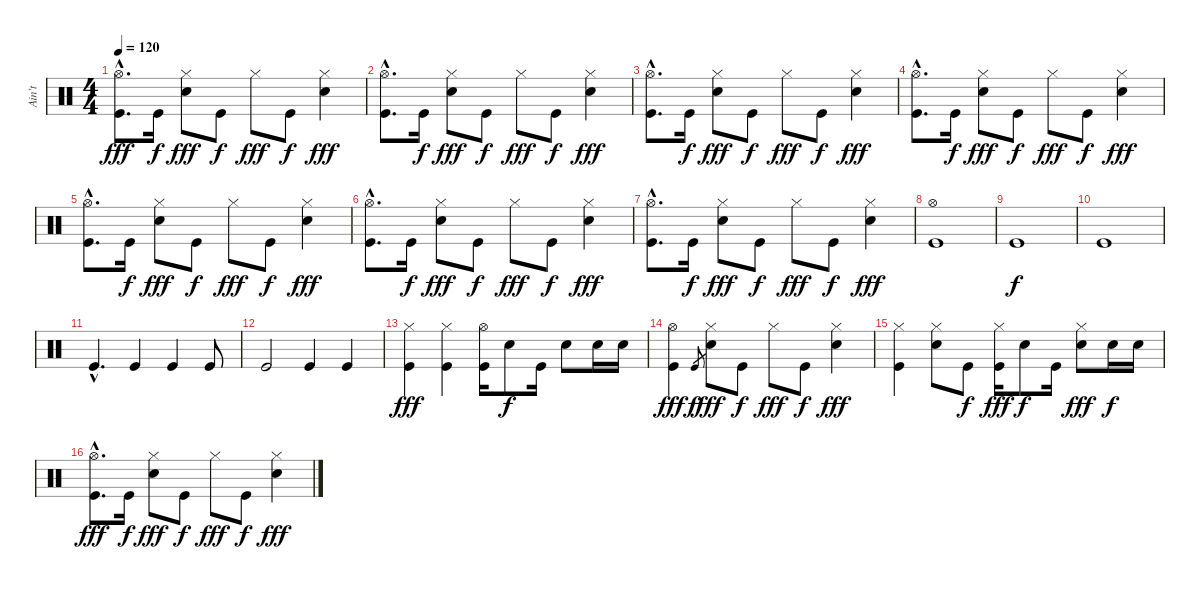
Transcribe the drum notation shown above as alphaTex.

\track ("Ain't" "Ain't") {instrument percussion}
\staff {score}
\articulation defaults
\ts (4 4)
\tempo 120
\clef neutral
\ks c
("Hi-Hat (open)"{hac} "Kick (hit)"{hac}).8{d dy fff} "Kick (hit)".16{dy f} ("Hi-Hat (closed)" "Electric Snare (hit)").8{dy fff} "Kick (hit)".8{dy f} "Hi-Hat (closed)".8{dy fff} "Kick (hit)".8{dy f} ("Hi-Hat (closed)" "Electric Snare (hit)").4{dy fff} |
("Hi-Hat (open)"{hac} "Kick (hit)"{hac}).8{d} "Kick (hit)".16{dy f} ("Hi-Hat (closed)" "Electric Snare (hit)").8{dy fff} "Kick (hit)".8{dy f} "Hi-Hat (closed)".8{dy fff} "Kick (hit)".8{dy f} ("Hi-Hat (closed)" "Electric Snare (hit)").4{dy fff} |
("Hi-Hat (open)"{hac} "Kick (hit)"{hac}).8{d} "Kick (hit)".16{dy f} ("Hi-Hat (closed)" "Electric Snare (hit)").8{dy fff} "Kick (hit)".8{dy f} "Hi-Hat (closed)".8{dy fff} "Kick (hit)".8{dy f} ("Hi-Hat (closed)" "Electric Snare (hit)").4{dy fff} |
("Hi-Hat (open)"{hac} "Kick (hit)"{hac}).8{d} "Kick (hit)".16{dy f} ("Hi-Hat (closed)" "Electric Snare (hit)").8{dy fff} "Kick (hit)".8{dy f} "Hi-Hat (closed)".8{dy fff} "Kick (hit)".8{dy f} ("Hi-Hat (closed)" "Electric Snare (hit)").4{dy fff} |
("Hi-Hat (open)"{hac} "Kick (hit)"{hac}).8{d} "Kick (hit)".16{dy f} ("Hi-Hat (closed)" "Electric Snare (hit)").8{dy fff} "Kick (hit)".8{dy f} "Hi-Hat (closed)".8{dy fff} "Kick (hit)".8{dy f} ("Hi-Hat (closed)" "Electric Snare (hit)").4{dy fff} |
("Hi-Hat (open)"{hac} "Kick (hit)"{hac}).8{d} "Kick (hit)".16{dy f} ("Hi-Hat (closed)" "Electric Snare (hit)").8{dy fff} "Kick (hit)".8{dy f} "Hi-Hat (closed)".8{dy fff} "Kick (hit)".8{dy f} ("Hi-Hat (closed)" "Electric Snare (hit)").4{dy fff} |
("Hi-Hat (open)"{hac} "Kick (hit)"{hac}).8{d} "Kick (hit)".16{dy f} ("Hi-Hat (closed)" "Electric Snare (hit)").8{dy fff} "Kick (hit)".8{dy f} "Hi-Hat (closed)".8{dy fff} "Kick (hit)".8{dy f} ("Hi-Hat (closed)" "Electric Snare (hit)").4{dy fff} |
("Hi-Hat (open)" "Kick (hit)").1 |
"Kick (hit)".1{dy f} |
"Kick (hit)".1 |
"Kick (hit)"{hac}.4{d} "Kick (hit)".4 "Kick (hit)".4 "Kick (hit)".8 |
"Kick (hit)".2 "Kick (hit)".4 "Kick (hit)".4 |
("Hi-Hat (closed)" "Kick (hit)").4{dy fff} ("Hi-Hat (closed)" "Kick (hit)").4 ("Hi-Hat (open)" "Kick (hit)").16 "Electric Snare (hit)".8{dy f} "Kick (hit)".16 "Electric Snare (hit)".8 "Electric Snare (hit)".16 "Electric Snare (hit)".16 |
("Hi-Hat (open)" "Kick (hit)").4{dy fff} "Kick (hit)".8{gr dy f} ("Hi-Hat (closed)" "Electric Snare (hit)").8{dy fff} "Kick (hit)".8{dy f} "Hi-Hat (closed)".8{dy fff} "Kick (hit)".8{dy f} ("Hi-Hat (closed)" "Electric Snare (hit)").4{dy fff} |
("Hi-Hat (closed)" "Kick (hit)").4 ("Hi-Hat (closed)" "Electric Snare (hit)").8 "Kick (hit)".8{dy f} ("Hi-Hat (closed)" "Kick (hit)").16{dy fff} "Electric Snare (hit)".8{dy f} "Kick (hit)".16 ("Hi-Hat (closed)" "Electric Snare (hit)").8{dy fff} "Electric Snare (hit)".16{dy f} "Electric Snare (hit)".16 |
("Hi-Hat (open)"{hac} "Kick (hit)"{hac}).8{d dy fff} "Kick (hit)".16{dy f} ("Hi-Hat (closed)" "Electric Snare (hit)").8{dy fff} "Kick (hit)".8{dy f} "Hi-Hat (closed)".8{dy fff} "Kick (hit)".8{dy f} ("Hi-Hat (closed)" "Electric Snare (hit)").4{dy fff}
